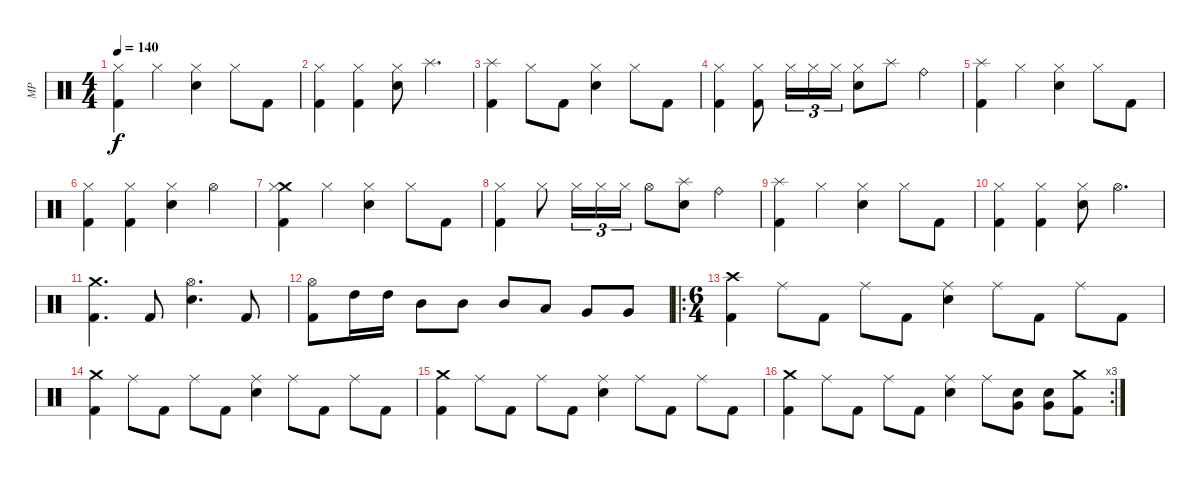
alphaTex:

\track ("MP" "MP") {instrument percussion}
\staff {score}
\articulation defaults
\ts (4 4)
\tempo 140
\clef neutral
\ks c
("Kick (hit) 2" "Hi-Hat (closed)").4{dy f} "Hi-Hat (closed)".4 ("Electric Snare (hit)" "Hi-Hat (closed)").4 "Hi-Hat (closed)".8 "Kick (hit) 2".8 |
("Kick (hit) 2" "Hi-Hat (closed)").4 ("Kick (hit) 2" "Hi-Hat (closed)").4 ("Electric Snare (hit)" "Hi-Hat (closed)").8 "Splash (hit)".4{d} |
("Kick (hit) 2" "Splash (hit)").4 "Hi-Hat (closed)".8 "Kick (hit) 2".8 ("Electric Snare (hit)" "Hi-Hat (closed)").4 "Hi-Hat (closed)".8 "Kick (hit) 2".8 |
("Kick (hit) 2" "Hi-Hat (closed)").4 ("Kick (hit) 2" "Hi-Hat (closed)").8 "Hi-Hat (closed)".16{tu (3 2)} "Hi-Hat (closed)".16{tu (3 2)} "Hi-Hat (closed)".16{tu (3 2)} ("Electric Snare (hit)" "Hi-Hat (closed)").8 "Splash (hit)".8 "Ride (bell)".4 |
("Kick (hit) 2" "Splash (hit)").4 "Hi-Hat (closed)".4 ("Electric Snare (hit)" "Hi-Hat (closed)").4 "Hi-Hat (closed)".8 "Kick (hit) 2".8 |
("Kick (hit) 2" "Hi-Hat (closed)").4 ("Kick (hit) 2" "Hi-Hat (closed)").4 ("Electric Snare (hit)" "Hi-Hat (closed)").4 "Hi-Hat (open)".4 |
("Kick (hit) 2" "Crash medium (hit)" "Hi-Hat (closed)").4 "Hi-Hat (closed)".4 ("Electric Snare (hit)" "Hi-Hat (closed)").4 "Hi-Hat (closed)".8 "Kick (hit) 2".8 |
("Kick (hit) 2" "Hi-Hat (closed)").4 "Hi-Hat (closed)".8 "Hi-Hat (closed)".16{tu (3 2)} "Hi-Hat (closed)".16{tu (3 2)} "Hi-Hat (closed)".16{tu (3 2)} "Hi-Hat (open)".8 ("Electric Snare (hit)" "Splash (hit)").8 "Ride (bell)".4 |
("Kick (hit) 2" "Splash (hit)").4 "Hi-Hat (closed)".4 ("Electric Snare (hit)" "Hi-Hat (closed)").4 "Hi-Hat (closed)".8 "Kick (hit) 2".8 |
("Kick (hit) 2" "Hi-Hat (closed)").4 ("Kick (hit) 2" "Hi-Hat (closed)").4 ("Electric Snare (hit)" "Hi-Hat (closed)").8 "Hi-Hat (open)".4{d} |
("Kick (hit) 2" "Crash medium (hit)").4{d} "Kick (hit) 2".8 ("Electric Snare (hit)" "Hi-Hat (open)").4{d} "Kick (hit) 2".8 |
("Kick (hit) 2" "Hi-Hat (open)").8 "High Tom (hit)".16 "High Tom (hit)".16 "Mid Tom (hit)".8 "Mid Tom (hit)".8 "Mid Tom (hit)".8 "Low Tom (hit)".8 "Very Low Tom (hit)".8 "Very Low Tom (hit)".8 |
\ro
\ts (6 4)
("Kick (hit) 2" "Crash high (hit)").4 "Ride (middle)".8 "Kick (hit) 2".8 "Ride (middle)".8 "Kick (hit) 2".8 ("Electric Snare (hit)" "Ride (middle)").4 "Ride (middle)".8 "Kick (hit) 2".8 "Ride (middle)".8 "Kick (hit) 2".8 |
("Kick (hit) 2" "Crash medium (hit)").4 "Ride (middle)".8 "Kick (hit) 2".8 "Ride (middle)".8 "Kick (hit) 2".8 ("Electric Snare (hit)" "Ride (middle)").4 "Ride (middle)".8 "Kick (hit) 2".8 "Ride (middle)".8 "Kick (hit) 2".8 |
("Kick (hit) 2" "Crash medium (hit)").4 "Ride (middle)".8 "Kick (hit) 2".8 "Ride (middle)".8 "Kick (hit) 2".8 ("Electric Snare (hit)" "Ride (middle)").4 "Ride (middle)".8 "Kick (hit) 2".8 "Ride (middle)".8 "Kick (hit) 2".8 |
\rc 3
("Kick (hit) 2" "Crash medium (hit)").4 "Ride (middle)".8 "Kick (hit) 2".8 "Ride (middle)".8 "Kick (hit) 2".8 ("Electric Snare (hit)" "Ride (middle)").4 "Ride (middle)".8 ("Electric Snare (hit)" "Very Low Tom (hit)").8 ("Electric Snare (hit)" "Very Low Tom (hit)").8 ("Kick (hit) 2" "Crash medium (hit)").8
